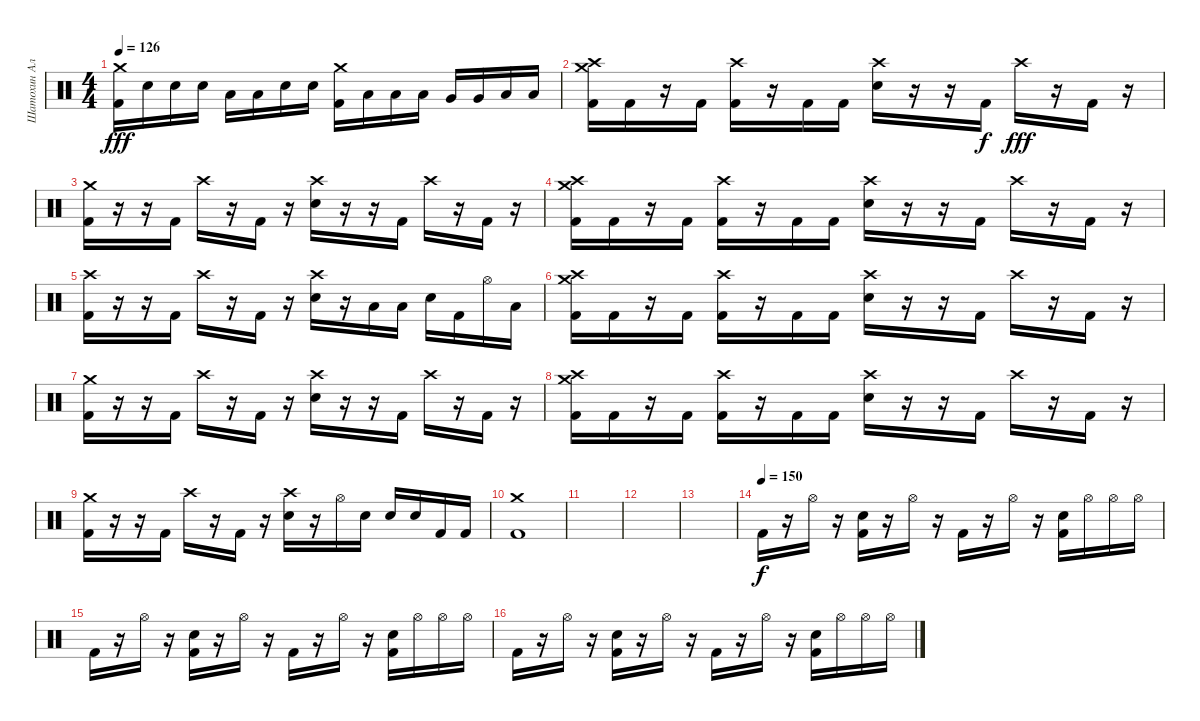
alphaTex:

\track ("Шатохин Алексей" "Шатохин Ал") {instrument percussion}
\staff {score}
\articulation defaults
\ts (4 4)
\tempo 126
\clef neutral
\ks c
("Crash medium (hit)" "Kick (hit) 2").16{dy fff} "Electric Snare (hit)".16 "Electric Snare (hit)".16 "Electric Snare (hit)".16 "Low Tom (hit)".16 "Low Tom (hit)".16 "Electric Snare (hit)".16 "Electric Snare (hit)".16 ("Crash medium (hit)" "Kick (hit) 2").16 "Low Tom (hit)".16 "Low Tom (hit)".16 "Low Tom (hit)".16 "Very Low Tom (hit)".16 "Very Low Tom (hit)".16 "Low Floor Tom (hit)".16 "Low Floor Tom (hit)".16 |
("Crash high (hit)" "Crash medium (hit)" "Kick (hit) 2").16 "Kick (hit) 2".16 r.16 "Kick (hit) 2".16 ("Crash high (hit)" "Kick (hit) 2").16 r.16 "Kick (hit) 2".16 "Kick (hit) 2".16 ("Crash high (hit)" "Electric Snare (hit)").16 r.16 r.16 "Kick (hit) 2".16{dy f} "Crash high (hit)".16{dy fff} r.16 "Kick (hit) 2".16 r.16 |
("Crash medium (hit)" "Kick (hit) 2").16 r.16 r.16 "Kick (hit) 2".16 "Crash high (hit)".16 r.16 "Kick (hit) 2".16 r.16 ("Crash high (hit)" "Electric Snare (hit)").16 r.16 r.16 "Kick (hit) 2".16 "Crash high (hit)".16 r.16 "Kick (hit) 2".16 r.16 |
("Crash high (hit)" "Crash medium (hit)" "Kick (hit) 2").16 "Kick (hit) 2".16 r.16 "Kick (hit) 2".16 ("Crash high (hit)" "Kick (hit) 2").16 r.16 "Kick (hit) 2".16 "Kick (hit) 2".16 ("Crash high (hit)" "Electric Snare (hit)").16 r.16 r.16 "Kick (hit) 2".16 "Crash high (hit)".16 r.16 "Kick (hit) 2".16 r.16 |
("Crash high (hit)" "Kick (hit) 2").16 r.16 r.16 "Kick (hit) 2".16 "Crash high (hit)".16 r.16 "Kick (hit) 2".16 r.16 ("Crash high (hit)" "Electric Snare (hit)").16 r.16 "Low Tom (hit)".16 "Low Tom (hit)".16 "Electric Snare (hit)".16 "Kick (hit) 2".16 "Hi-Hat (open)".16 "Low Tom (hit)".16 |
("Crash high (hit)" "Crash medium (hit)" "Kick (hit) 2").16 "Kick (hit) 2".16 r.16 "Kick (hit) 2".16 ("Crash high (hit)" "Kick (hit) 2").16 r.16 "Kick (hit) 2".16 "Kick (hit) 2".16 ("Crash high (hit)" "Electric Snare (hit)").16 r.16 r.16 "Kick (hit) 2".16 "Crash high (hit)".16 r.16 "Kick (hit) 2".16 r.16 |
("Crash medium (hit)" "Kick (hit) 2").16 r.16 r.16 "Kick (hit) 2".16 "Crash high (hit)".16 r.16 "Kick (hit) 2".16 r.16 ("Crash high (hit)" "Electric Snare (hit)").16 r.16 r.16 "Kick (hit) 2".16 "Crash high (hit)".16 r.16 "Kick (hit) 2".16 r.16 |
("Crash high (hit)" "Crash medium (hit)" "Kick (hit) 2").16 "Kick (hit) 2".16 r.16 "Kick (hit) 2".16 ("Crash high (hit)" "Kick (hit) 2").16 r.16 "Kick (hit) 2".16 "Kick (hit) 2".16 ("Crash high (hit)" "Electric Snare (hit)").16 r.16 r.16 "Kick (hit) 2".16 "Crash high (hit)".16 r.16 "Kick (hit) 2".16 r.16 |
("Crash medium (hit)" "Kick (hit) 2").16 r.16 r.16 "Kick (hit) 2".16 "Crash high (hit)".16 r.16 "Kick (hit) 2".16 r.16 ("Crash high (hit)" "Electric Snare (hit)").16 r.16 "Hi-Hat (open)".16 "Electric Snare (hit)".16 "Electric Snare (hit)".16 "Electric Snare (hit)".16 "Kick (hit) 2".16 "Kick (hit) 2".16 |
("Crash medium (hit)" "Kick (hit) 2").1 |
|
|
|
\tempo (150)
"Kick (hit) 2".16{dy f} r.16 "Hi-Hat (open)".16 r.16 ("Kick (hit) 2" "Electric Snare (hit)").16 r.16 "Hi-Hat (open)".16 r.16 "Kick (hit) 2".16 r.16 "Hi-Hat (open)".16 r.16 ("Kick (hit) 2" "Electric Snare (hit)").16 "Hi-Hat (open)".16 "Hi-Hat (open)".16 "Hi-Hat (open)".16 |
"Kick (hit) 2".16 r.16 "Hi-Hat (open)".16 r.16 ("Kick (hit) 2" "Electric Snare (hit)").16 r.16 "Hi-Hat (open)".16 r.16 "Kick (hit) 2".16 r.16 "Hi-Hat (open)".16 r.16 ("Kick (hit) 2" "Electric Snare (hit)").16 "Hi-Hat (open)".16 "Hi-Hat (open)".16 "Hi-Hat (open)".16 |
"Kick (hit) 2".16 r.16 "Hi-Hat (open)".16 r.16 ("Kick (hit) 2" "Electric Snare (hit)").16 r.16 "Hi-Hat (open)".16 r.16 "Kick (hit) 2".16 r.16 "Hi-Hat (open)".16 r.16 ("Kick (hit) 2" "Electric Snare (hit)").16 "Hi-Hat (open)".16 "Hi-Hat (open)".16 "Hi-Hat (open)".16
